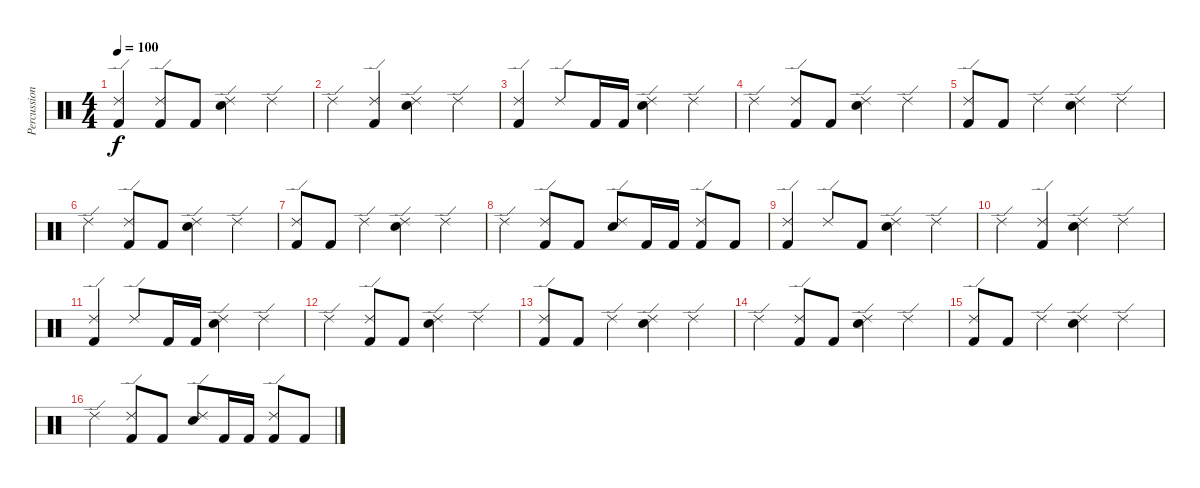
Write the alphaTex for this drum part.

\track ("Percussion" "Percussion") {instrument percussion}
\staff {score}
\articulation defaults
\ts (4 4)
\tempo 100
\clef neutral
\ks c
("Ride (edge) 2" "Kick (hit) 2").4{dy f} ("Ride (edge) 2" "Kick (hit) 2").8 "Kick (hit) 2".8 ("Ride (edge) 2" "Electric Snare (hit)").4 "Ride (edge) 2".4 |
"Ride (edge) 2".4 ("Ride (edge) 2" "Kick (hit) 2").4 ("Ride (edge) 2" "Electric Snare (hit)").4 "Ride (edge) 2".4 |
("Ride (edge) 2" "Kick (hit) 2").4 "Ride (edge) 2".8 "Kick (hit) 2".16 "Kick (hit) 2".16 ("Ride (edge) 2" "Electric Snare (hit)").4 "Ride (edge) 2".4 |
"Ride (edge) 2".4 ("Ride (edge) 2" "Kick (hit) 2").8 "Kick (hit) 2".8 ("Ride (edge) 2" "Electric Snare (hit)").4 "Ride (edge) 2".4 |
("Ride (edge) 2" "Kick (hit) 2").8 "Kick (hit) 2".8 "Ride (edge) 2".4 ("Ride (edge) 2" "Electric Snare (hit)").4 "Ride (edge) 2".4 |
"Ride (edge) 2".4 ("Ride (edge) 2" "Kick (hit) 2").8 "Kick (hit) 2".8 ("Ride (edge) 2" "Electric Snare (hit)").4 "Ride (edge) 2".4 |
("Ride (edge) 2" "Kick (hit) 2").8 "Kick (hit) 2".8 "Ride (edge) 2".4 ("Ride (edge) 2" "Electric Snare (hit)").4 "Ride (edge) 2".4 |
"Ride (edge) 2".4 ("Ride (edge) 2" "Kick (hit) 2").8 "Kick (hit) 2".8 ("Ride (edge) 2" "Electric Snare (hit)").8 "Kick (hit) 2".16 "Kick (hit) 2".16 ("Ride (edge) 2" "Kick (hit) 2").8 "Kick (hit) 2".8 |
("Ride (edge) 2" "Kick (hit) 2").4 "Ride (edge) 2".8 "Kick (hit) 2".8 ("Ride (edge) 2" "Electric Snare (hit)").4 "Ride (edge) 2".4 |
"Ride (edge) 2".4 ("Ride (edge) 2" "Kick (hit) 2").4 ("Ride (edge) 2" "Electric Snare (hit)").4 "Ride (edge) 2".4 |
("Ride (edge) 2" "Kick (hit) 2").4 "Ride (edge) 2".8 "Kick (hit) 2".16 "Kick (hit) 2".16 ("Ride (edge) 2" "Electric Snare (hit)").4 "Ride (edge) 2".4 |
"Ride (edge) 2".4 ("Ride (edge) 2" "Kick (hit) 2").8 "Kick (hit) 2".8 ("Ride (edge) 2" "Electric Snare (hit)").4 "Ride (edge) 2".4 |
("Ride (edge) 2" "Kick (hit) 2").8 "Kick (hit) 2".8 "Ride (edge) 2".4 ("Ride (edge) 2" "Electric Snare (hit)").4 "Ride (edge) 2".4 |
"Ride (edge) 2".4 ("Ride (edge) 2" "Kick (hit) 2").8 "Kick (hit) 2".8 ("Ride (edge) 2" "Electric Snare (hit)").4 "Ride (edge) 2".4 |
("Ride (edge) 2" "Kick (hit) 2").8 "Kick (hit) 2".8 "Ride (edge) 2".4 ("Ride (edge) 2" "Electric Snare (hit)").4 "Ride (edge) 2".4 |
"Ride (edge) 2".4 ("Ride (edge) 2" "Kick (hit) 2").8 "Kick (hit) 2".8 ("Ride (edge) 2" "Electric Snare (hit)").8 "Kick (hit) 2".16 "Kick (hit) 2".16 ("Ride (edge) 2" "Kick (hit) 2").8 "Kick (hit) 2".8
